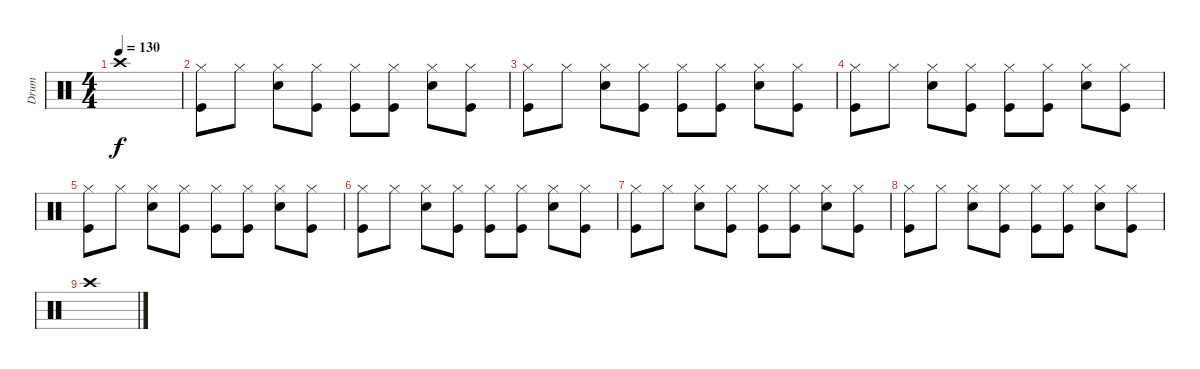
\track ("Drum" "Drum") {instrument percussion}
\staff {score}
\articulation defaults
\ts (4 4)
\tempo 130
\clef neutral
\ks c "Crash high (hit)".1{dy f}
|
("Hi-Hat (closed)" "Kick (hit)").8 "Hi-Hat (closed)".8 ("Hi-Hat (closed)" "Electric Snare (hit)").8 ("Hi-Hat (closed)" "Kick (hit)").8 ("Hi-Hat (closed)" "Kick (hit)").8 ("Hi-Hat (closed)" "Kick (hit)").8 ("Hi-Hat (closed)" "Electric Snare (hit)").8 ("Hi-Hat (closed)" "Kick (hit)").8 |
("Hi-Hat (closed)" "Kick (hit)").8 "Hi-Hat (closed)".8 ("Hi-Hat (closed)" "Electric Snare (hit)").8 ("Hi-Hat (closed)" "Kick (hit)").8 ("Hi-Hat (closed)" "Kick (hit)").8 ("Hi-Hat (closed)" "Kick (hit)").8 ("Hi-Hat (closed)" "Electric Snare (hit)").8 ("Hi-Hat (closed)" "Kick (hit)").8 |
("Hi-Hat (closed)" "Kick (hit)").8 "Hi-Hat (closed)".8 ("Hi-Hat (closed)" "Electric Snare (hit)").8 ("Hi-Hat (closed)" "Kick (hit)").8 ("Hi-Hat (closed)" "Kick (hit)").8 ("Hi-Hat (closed)" "Kick (hit)").8 ("Hi-Hat (closed)" "Electric Snare (hit)").8 ("Hi-Hat (closed)" "Kick (hit)").8 |
("Hi-Hat (closed)" "Kick (hit)").8 "Hi-Hat (closed)".8 ("Hi-Hat (closed)" "Electric Snare (hit)").8 ("Hi-Hat (closed)" "Kick (hit)").8 ("Hi-Hat (closed)" "Kick (hit)").8 ("Hi-Hat (closed)" "Kick (hit)").8 ("Hi-Hat (closed)" "Electric Snare (hit)").8 ("Hi-Hat (closed)" "Kick (hit)").8 |
("Hi-Hat (closed)" "Kick (hit)").8 "Hi-Hat (closed)".8 ("Hi-Hat (closed)" "Electric Snare (hit)").8 ("Hi-Hat (closed)" "Kick (hit)").8 ("Hi-Hat (closed)" "Kick (hit)").8 ("Hi-Hat (closed)" "Kick (hit)").8 ("Hi-Hat (closed)" "Electric Snare (hit)").8 ("Hi-Hat (closed)" "Kick (hit)").8 |
("Hi-Hat (closed)" "Kick (hit)").8 "Hi-Hat (closed)".8 ("Hi-Hat (closed)" "Electric Snare (hit)").8 ("Hi-Hat (closed)" "Kick (hit)").8 ("Hi-Hat (closed)" "Kick (hit)").8 ("Hi-Hat (closed)" "Kick (hit)").8 ("Hi-Hat (closed)" "Electric Snare (hit)").8 ("Hi-Hat (closed)" "Kick (hit)").8 |
("Hi-Hat (closed)" "Kick (hit)").8 "Hi-Hat (closed)".8 ("Hi-Hat (closed)" "Electric Snare (hit)").8 ("Hi-Hat (closed)" "Kick (hit)").8 ("Hi-Hat (closed)" "Kick (hit)").8 ("Hi-Hat (closed)" "Kick (hit)").8 ("Hi-Hat (closed)" "Electric Snare (hit)").8 ("Hi-Hat (closed)" "Kick (hit)").8 |
"Crash high (hit)".1
